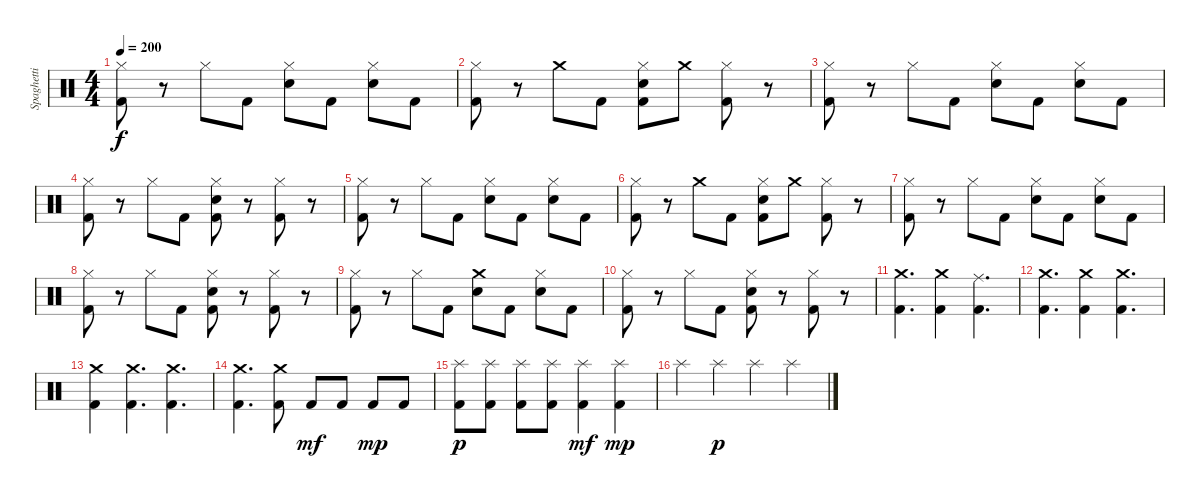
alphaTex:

\track ("Spaghetti" "Spaghetti") {instrument percussion}
\staff {score}
\articulation defaults
\ts (4 4)
\tempo 200
\clef neutral
\ks c
("Hi-Hat (closed)" "Kick (hit) 2").8{dy f} r.8 "Hi-Hat (closed)".8 "Kick (hit) 2".8 ("Hi-Hat (closed)" "Snare (hit) 2").8 "Kick (hit) 2".8 ("Hi-Hat (closed)" "Snare (hit) 2").8 "Kick (hit) 2".8 |
("Hi-Hat (closed)" "Kick (hit) 2").8 r.8 "Crash medium (hit)".8 "Kick (hit) 2".8 ("Hi-Hat (closed)" "Snare (hit) 2" "Kick (hit) 2").8 "Crash medium (hit)".8 ("Hi-Hat (closed)" "Kick (hit) 2").8 r.8 |
("Hi-Hat (closed)" "Kick (hit) 2").8 r.8 "Hi-Hat (closed)".8 "Kick (hit) 2".8 ("Hi-Hat (closed)" "Snare (hit) 2").8 "Kick (hit) 2".8 ("Hi-Hat (closed)" "Snare (hit) 2").8 "Kick (hit) 2".8 |
("Hi-Hat (closed)" "Kick (hit) 2").8 r.8 "Hi-Hat (closed)".8 "Kick (hit) 2".8 ("Hi-Hat (closed)" "Snare (hit) 2" "Kick (hit) 2").8 r.8 ("Hi-Hat (closed)" "Kick (hit) 2").8 r.8 |
("Hi-Hat (closed)" "Kick (hit) 2").8 r.8 "Hi-Hat (closed)".8 "Kick (hit) 2".8 ("Hi-Hat (closed)" "Snare (hit) 2").8 "Kick (hit) 2".8 ("Hi-Hat (closed)" "Snare (hit) 2").8 "Kick (hit) 2".8 |
("Hi-Hat (closed)" "Kick (hit) 2").8 r.8 "Crash medium (hit)".8 "Kick (hit) 2".8 ("Hi-Hat (closed)" "Snare (hit) 2" "Kick (hit) 2").8 "Crash medium (hit)".8 ("Hi-Hat (closed)" "Kick (hit) 2").8 r.8 |
("Hi-Hat (closed)" "Kick (hit) 2").8 r.8 "Hi-Hat (closed)".8 "Kick (hit) 2".8 ("Hi-Hat (closed)" "Snare (hit) 2").8 "Kick (hit) 2".8 ("Hi-Hat (closed)" "Snare (hit) 2").8 "Kick (hit) 2".8 |
("Hi-Hat (closed)" "Kick (hit) 2").8 r.8 "Hi-Hat (closed)".8 "Kick (hit) 2".8 ("Hi-Hat (closed)" "Snare (hit) 2" "Kick (hit) 2").8 r.8 ("Hi-Hat (closed)" "Kick (hit) 2").8 r.8 |
("Hi-Hat (closed)" "Kick (hit) 2").8 r.8 "Hi-Hat (closed)".8 "Kick (hit) 2".8 ("Crash medium (hit)" "Snare (hit) 2").8 "Kick (hit) 2".8 ("Hi-Hat (closed)" "Snare (hit) 2").8 "Kick (hit) 2".8 |
("Hi-Hat (closed)" "Kick (hit) 2").8 r.8 "Hi-Hat (closed)".8 "Kick (hit) 2".8 ("Hi-Hat (closed)" "Snare (hit) 2" "Kick (hit) 2").8 r.8 ("Hi-Hat (closed)" "Kick (hit) 2").8 r.8 |
("Crash medium (hit)" "Kick (hit) 2").4{d} ("Crash medium (hit)" "Kick (hit) 2").4 ("Ride (middle)" "Kick (hit) 2").4{d} |
("Crash medium (hit)" "Kick (hit) 2").4{d} ("Crash medium (hit)" "Kick (hit) 2").4 ("Crash medium (hit)" "Kick (hit) 2").4{d} |
("Crash medium (hit)" "Kick (hit) 2").4 ("Crash medium (hit)" "Kick (hit) 2").4{d} ("Crash medium (hit)" "Kick (hit) 2").4{d} |
("Crash medium (hit)" "Kick (hit) 2").4{d} ("Crash medium (hit)" "Kick (hit) 2").8 "Kick (hit) 2".8{dy mf} "Kick (hit) 2".8 "Kick (hit) 2".8{dy mp} "Kick (hit) 2".8 |
("Splash (hit)" "Kick (hit) 2").8{dy p} ("Splash (hit)" "Kick (hit) 2").8 ("Splash (hit)" "Kick (hit) 2").8 ("Splash (hit)" "Kick (hit) 2").8 ("Splash (hit)" "Kick (hit) 2").4{dy mf} ("Splash (hit)" "Kick (hit) 2").4{dy mp} |
"Splash (hit)".4 "Splash (hit)".4{dy p} "Splash (hit)".4 "Splash (hit)".4
